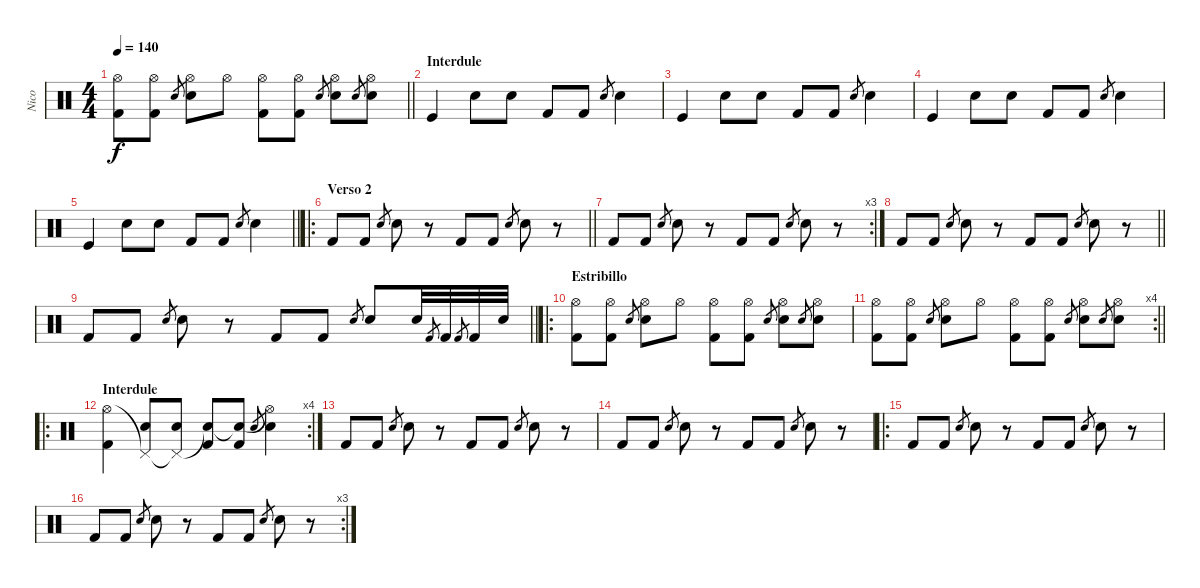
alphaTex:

\track ("Nico" "Nico") {instrument percussion}
\staff {score}
\articulation defaults
\ts (4 4)
\tempo 140
\clef neutral
\barLineRight lightlight
\ks c
("Kick (hit) 2" "Hi-Hat (open)").8{dy f} ("Kick (hit) 2" "Hi-Hat (open)").8 "Snare (hit) 2".8{gr} ("Snare (hit) 2" "Hi-Hat (open)").8 "Hi-Hat (open)".8 ("Kick (hit) 2" "Hi-Hat (open)").8 ("Kick (hit) 2" "Hi-Hat (open)").8 "Snare (hit) 2".8{gr} ("Snare (hit) 2" "Hi-Hat (open)").8 "Snare (hit) 2".8{gr} ("Snare (hit) 2" "Hi-Hat (open)").8 |
\section ("" "Interdule")
"Kick (hit)".4 "Snare (hit) 2".8 "Snare (hit) 2".8 "Kick (hit) 2".8 "Kick (hit) 2".8 "Snare (hit) 2".8{gr} "Snare (hit) 2".4 |
"Kick (hit)".4 "Snare (hit) 2".8 "Snare (hit) 2".8 "Kick (hit) 2".8 "Kick (hit) 2".8 "Snare (hit) 2".8{gr} "Snare (hit) 2".4 |
"Kick (hit)".4 "Snare (hit) 2".8 "Snare (hit) 2".8 "Kick (hit) 2".8 "Kick (hit) 2".8 "Snare (hit) 2".8{gr} "Snare (hit) 2".4 |
\barLineRight lightlight "Kick (hit)".4 "Snare (hit) 2".8 "Snare (hit) 2".8 "Kick (hit) 2".8 "Kick (hit) 2".8 "Snare (hit) 2".8{gr} "Snare (hit) 2".4
|
\ro
\section ("" "Verso 2")
\barLineRight lightlight "Kick (hit) 2".8 "Kick (hit) 2".8 "Snare (hit) 2".8{gr} "Snare (hit) 2".8
r.8 "Kick (hit) 2".8 "Kick (hit) 2".8 "Snare (hit) 2".8{gr} "Snare (hit) 2".8 r.8 |
\rc 3
\section ("" "")
"Kick (hit) 2".8 "Kick (hit) 2".8 "Snare (hit) 2".8{gr} "Snare (hit) 2".8 r.8 "Kick (hit) 2".8 "Kick (hit) 2".8 "Snare (hit) 2".8{gr} "Snare (hit) 2".8 r.8 |
\barLineRight lightlight "Kick (hit) 2".8 "Kick (hit) 2".8 "Snare (hit) 2".8{gr} "Snare (hit) 2".8
r.8 "Kick (hit) 2".8 "Kick (hit) 2".8 "Snare (hit) 2".8{gr} "Snare (hit) 2".8 r.8 |
\barLineRight lightlight "Kick (hit) 2".8 "Kick (hit) 2".8 "Snare (hit) 2".8{gr} "Snare (hit) 2".8
r.8 "Kick (hit) 2".8 "Kick (hit) 2".8 "Snare (hit) 2".8{gr} "Snare (hit) 2".8 "Snare (hit) 2".32 "Kick (hit) 2".8{gr} "Kick (hit) 2".32 "Kick (hit) 2".8{gr} "Kick (hit) 2".32 "Snare (hit) 2".32 |
\ro
\section ("" "Estribillo")
("Kick (hit) 2" "Hi-Hat (open)").8 ("Kick (hit) 2" "Hi-Hat (open)").8 "Snare (hit) 2".8{gr} ("Snare (hit) 2" "Hi-Hat (open)").8 "Hi-Hat (open)".8 ("Kick (hit) 2" "Hi-Hat (open)").8 ("Kick (hit) 2" "Hi-Hat (open)").8 "Snare (hit) 2".8{gr} ("Snare (hit) 2" "Hi-Hat (open)").8 "Snare (hit) 2".8{gr} ("Snare (hit) 2" "Hi-Hat (open)").8 |
\rc 4
\barLineRight lightlight
("Kick (hit) 2" "Hi-Hat (open)").8 ("Kick (hit) 2" "Hi-Hat (open)").8 "Snare (hit) 2".8{gr} ("Snare (hit) 2" "Hi-Hat (open)").8 "Hi-Hat (open)".8 ("Kick (hit) 2" "Hi-Hat (open)").8 ("Kick (hit) 2" "Hi-Hat (open)").8 "Snare (hit) 2".8{gr} ("Snare (hit) 2" "Hi-Hat (open)").8 "Snare (hit) 2".8{gr} ("Snare (hit) 2" "Hi-Hat (open)").8 |
\ro
\rc 4
\section ("" "Interdule")
("Kick (hit) 2" "Hi-Hat (open)").4 ("Snare (hit) 2" "Pedal Hi-Hat (hit)"{t}).8 ("Snare (hit) 2" "Pedal Hi-Hat (hit)"{t}).8 ("Kick (hit) 2" "Snare (hit)"{t}).8 ("Kick (hit) 2" "Snare (hit)"{t}).8 "Snare (hit) 2".8{gr} ("Snare (hit) 2" "Hi-Hat (open)"{t}).4 |
"Kick (hit) 2".8 "Kick (hit) 2".8 "Snare (hit) 2".8{gr} "Snare (hit) 2".8 r.8 "Kick (hit) 2".8 "Kick (hit) 2".8 "Snare (hit) 2".8{gr} "Snare (hit) 2".8 r.8 |
"Kick (hit) 2".8 "Kick (hit) 2".8 "Snare (hit) 2".8{gr} "Snare (hit) 2".8 r.8 "Kick (hit) 2".8 "Kick (hit) 2".8 "Snare (hit) 2".8{gr} "Snare (hit) 2".8 r.8 |
\ro "Kick (hit) 2".8 "Kick (hit) 2".8 "Snare (hit) 2".8{gr} "Snare (hit) 2".8
r.8 "Kick (hit) 2".8 "Kick (hit) 2".8 "Snare (hit) 2".8{gr} "Snare (hit) 2".8 r.8 |
\rc 3 "Kick (hit) 2".8 "Kick (hit) 2".8 "Snare (hit) 2".8{gr} "Snare (hit) 2".8
r.8 "Kick (hit) 2".8 "Kick (hit) 2".8 "Snare (hit) 2".8{gr} "Snare (hit) 2".8 r.8
